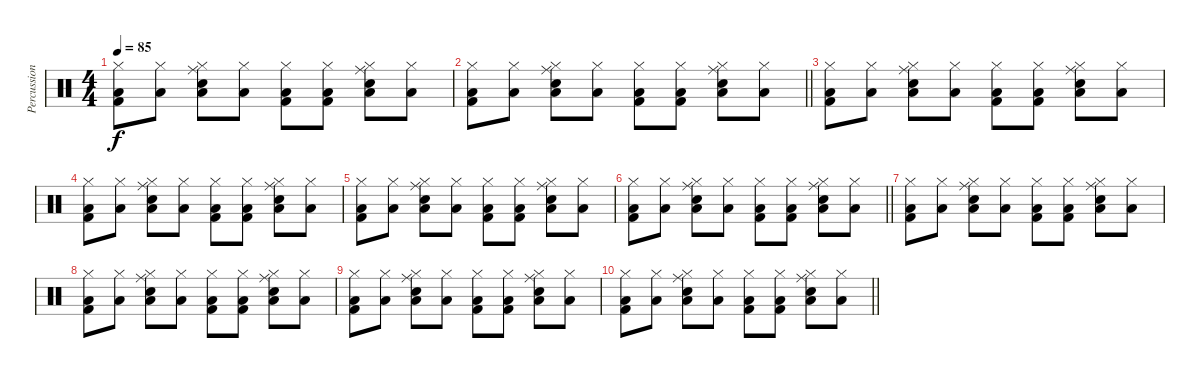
\track ("Percussion" "Percussion") {instrument percussion}
\staff {score}
\articulation defaults
\ts (4 4)
\tempo 85
\clef neutral
\ks c
("Hi-Hat (closed)" "Kick (hit) 2" "Low Floor Tom (hit)").8{dy f} ("Hi-Hat (closed)" "Low Floor Tom (hit)").8 ("Hi-Hat (closed)" "Ride (middle)" "Electric Snare (hit)" "Low Floor Tom (hit)").8 ("Hi-Hat (closed)" "Low Floor Tom (hit)").8 ("Hi-Hat (closed)" "Kick (hit) 2" "Low Floor Tom (hit)").8 ("Hi-Hat (closed)" "Kick (hit) 2" "Low Floor Tom (hit)").8 ("Hi-Hat (closed)" "Ride (middle)" "Electric Snare (hit)" "Low Floor Tom (hit)").8 ("Hi-Hat (closed)" "Low Floor Tom (hit)").8 |
\barLineRight lightlight
("Hi-Hat (closed)" "Kick (hit) 2" "Low Floor Tom (hit)").8 ("Hi-Hat (closed)" "Low Floor Tom (hit)").8 ("Hi-Hat (closed)" "Ride (middle)" "Electric Snare (hit)" "Low Floor Tom (hit)").8 ("Hi-Hat (closed)" "Low Floor Tom (hit)").8 ("Hi-Hat (closed)" "Kick (hit) 2" "Low Floor Tom (hit)").8 ("Hi-Hat (closed)" "Kick (hit) 2" "Low Floor Tom (hit)").8 ("Hi-Hat (closed)" "Ride (middle)" "Electric Snare (hit)" "Low Floor Tom (hit)").8 ("Hi-Hat (closed)" "Low Floor Tom (hit)").8 |
("Hi-Hat (closed)" "Kick (hit) 2" "Low Floor Tom (hit)").8 ("Hi-Hat (closed)" "Low Floor Tom (hit)").8 ("Hi-Hat (closed)" "Ride (middle)" "Electric Snare (hit)" "Low Floor Tom (hit)").8 ("Hi-Hat (closed)" "Low Floor Tom (hit)").8 ("Hi-Hat (closed)" "Kick (hit) 2" "Low Floor Tom (hit)").8 ("Hi-Hat (closed)" "Kick (hit) 2" "Low Floor Tom (hit)").8 ("Hi-Hat (closed)" "Ride (middle)" "Electric Snare (hit)" "Low Floor Tom (hit)").8 ("Hi-Hat (closed)" "Low Floor Tom (hit)").8 |
("Hi-Hat (closed)" "Kick (hit) 2" "Low Floor Tom (hit)").8 ("Hi-Hat (closed)" "Low Floor Tom (hit)").8 ("Hi-Hat (closed)" "Ride (middle)" "Electric Snare (hit)" "Low Floor Tom (hit)").8 ("Hi-Hat (closed)" "Low Floor Tom (hit)").8 ("Hi-Hat (closed)" "Kick (hit) 2" "Low Floor Tom (hit)").8 ("Hi-Hat (closed)" "Kick (hit) 2" "Low Floor Tom (hit)").8 ("Hi-Hat (closed)" "Ride (middle)" "Electric Snare (hit)" "Low Floor Tom (hit)").8 ("Hi-Hat (closed)" "Low Floor Tom (hit)").8 |
("Hi-Hat (closed)" "Kick (hit) 2" "Low Floor Tom (hit)").8 ("Hi-Hat (closed)" "Low Floor Tom (hit)").8 ("Hi-Hat (closed)" "Ride (middle)" "Electric Snare (hit)" "Low Floor Tom (hit)").8 ("Hi-Hat (closed)" "Low Floor Tom (hit)").8 ("Hi-Hat (closed)" "Kick (hit) 2" "Low Floor Tom (hit)").8 ("Hi-Hat (closed)" "Kick (hit) 2" "Low Floor Tom (hit)").8 ("Hi-Hat (closed)" "Ride (middle)" "Electric Snare (hit)" "Low Floor Tom (hit)").8 ("Hi-Hat (closed)" "Low Floor Tom (hit)").8 |
\barLineRight lightlight
("Hi-Hat (closed)" "Kick (hit) 2" "Low Floor Tom (hit)").8 ("Hi-Hat (closed)" "Low Floor Tom (hit)").8 ("Hi-Hat (closed)" "Ride (middle)" "Electric Snare (hit)" "Low Floor Tom (hit)").8 ("Hi-Hat (closed)" "Low Floor Tom (hit)").8 ("Hi-Hat (closed)" "Kick (hit) 2" "Low Floor Tom (hit)").8 ("Hi-Hat (closed)" "Kick (hit) 2" "Low Floor Tom (hit)").8 ("Hi-Hat (closed)" "Ride (middle)" "Electric Snare (hit)" "Low Floor Tom (hit)").8 ("Hi-Hat (closed)" "Low Floor Tom (hit)").8 |
("Hi-Hat (closed)" "Kick (hit) 2" "Low Floor Tom (hit)").8 ("Hi-Hat (closed)" "Low Floor Tom (hit)").8 ("Hi-Hat (closed)" "Ride (middle)" "Electric Snare (hit)" "Low Floor Tom (hit)").8 ("Hi-Hat (closed)" "Low Floor Tom (hit)").8 ("Hi-Hat (closed)" "Kick (hit) 2" "Low Floor Tom (hit)").8 ("Hi-Hat (closed)" "Kick (hit) 2" "Low Floor Tom (hit)").8 ("Hi-Hat (closed)" "Ride (middle)" "Electric Snare (hit)" "Low Floor Tom (hit)").8 ("Hi-Hat (closed)" "Low Floor Tom (hit)").8 |
("Hi-Hat (closed)" "Kick (hit) 2" "Low Floor Tom (hit)").8 ("Hi-Hat (closed)" "Low Floor Tom (hit)").8 ("Hi-Hat (closed)" "Ride (middle)" "Electric Snare (hit)" "Low Floor Tom (hit)").8 ("Hi-Hat (closed)" "Low Floor Tom (hit)").8 ("Hi-Hat (closed)" "Kick (hit) 2" "Low Floor Tom (hit)").8 ("Hi-Hat (closed)" "Kick (hit) 2" "Low Floor Tom (hit)").8 ("Hi-Hat (closed)" "Ride (middle)" "Electric Snare (hit)" "Low Floor Tom (hit)").8 ("Hi-Hat (closed)" "Low Floor Tom (hit)").8 |
("Hi-Hat (closed)" "Kick (hit) 2" "Low Floor Tom (hit)").8 ("Hi-Hat (closed)" "Low Floor Tom (hit)").8 ("Hi-Hat (closed)" "Ride (middle)" "Electric Snare (hit)" "Low Floor Tom (hit)").8 ("Hi-Hat (closed)" "Low Floor Tom (hit)").8 ("Hi-Hat (closed)" "Kick (hit) 2" "Low Floor Tom (hit)").8 ("Hi-Hat (closed)" "Kick (hit) 2" "Low Floor Tom (hit)").8 ("Hi-Hat (closed)" "Ride (middle)" "Electric Snare (hit)" "Low Floor Tom (hit)").8 ("Hi-Hat (closed)" "Low Floor Tom (hit)").8 |
\barLineRight lightlight
("Hi-Hat (closed)" "Kick (hit) 2" "Low Floor Tom (hit)").8 ("Hi-Hat (closed)" "Low Floor Tom (hit)").8 ("Hi-Hat (closed)" "Ride (middle)" "Electric Snare (hit)" "Low Floor Tom (hit)").8 ("Hi-Hat (closed)" "Low Floor Tom (hit)").8 ("Hi-Hat (closed)" "Kick (hit) 2" "Low Floor Tom (hit)").8 ("Hi-Hat (closed)" "Kick (hit) 2" "Low Floor Tom (hit)").8 ("Hi-Hat (closed)" "Ride (middle)" "Electric Snare (hit)" "Low Floor Tom (hit)").8 ("Hi-Hat (closed)" "Low Floor Tom (hit)").8
